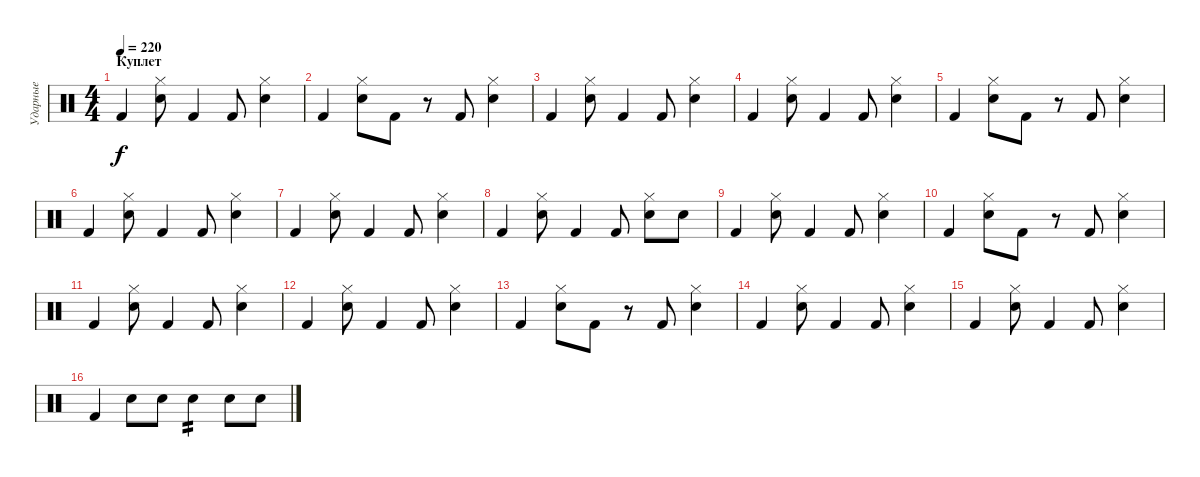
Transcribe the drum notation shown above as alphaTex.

\track ("Ударные" "Ударные") {instrument percussion}
\staff {score}
\articulation defaults
\ts (4 4)
\section ("" "Куплет")
\tempo 220
\clef neutral
\ks c "Kick (hit) 2".4{dy f}
("Hi-Hat (closed)" "Snare (hit) 2").8 "Kick (hit) 2".4 "Kick (hit) 2".8 ("Hi-Hat (closed)" "Snare (hit) 2").4 |
"Kick (hit) 2".4 ("Hi-Hat (closed)" "Snare (hit) 2").8 "Kick (hit) 2".8 r.8 "Kick (hit) 2".8 ("Hi-Hat (closed)" "Snare (hit) 2").4 |
"Kick (hit) 2".4 ("Hi-Hat (closed)" "Snare (hit) 2").8 "Kick (hit) 2".4 "Kick (hit) 2".8 ("Hi-Hat (closed)" "Snare (hit) 2").4 |
"Kick (hit) 2".4 ("Hi-Hat (closed)" "Snare (hit) 2").8 "Kick (hit) 2".4 "Kick (hit) 2".8 ("Hi-Hat (closed)" "Snare (hit) 2").4 |
"Kick (hit) 2".4 ("Hi-Hat (closed)" "Snare (hit) 2").8 "Kick (hit) 2".8 r.8 "Kick (hit) 2".8 ("Hi-Hat (closed)" "Snare (hit) 2").4 |
"Kick (hit) 2".4 ("Hi-Hat (closed)" "Snare (hit) 2").8 "Kick (hit) 2".4 "Kick (hit) 2".8 ("Hi-Hat (closed)" "Snare (hit) 2").4 |
"Kick (hit) 2".4 ("Hi-Hat (closed)" "Snare (hit) 2").8 "Kick (hit) 2".4 "Kick (hit) 2".8 ("Hi-Hat (closed)" "Snare (hit) 2").4 |
"Kick (hit) 2".4 ("Hi-Hat (closed)" "Snare (hit) 2").8 "Kick (hit) 2".4 "Kick (hit) 2".8 ("Hi-Hat (closed)" "Snare (hit) 2").8 "Snare (hit) 2".8 |
"Kick (hit) 2".4 ("Hi-Hat (closed)" "Snare (hit) 2").8 "Kick (hit) 2".4 "Kick (hit) 2".8 ("Hi-Hat (closed)" "Snare (hit) 2").4 |
"Kick (hit) 2".4 ("Hi-Hat (closed)" "Snare (hit) 2").8 "Kick (hit) 2".8 r.8 "Kick (hit) 2".8 ("Hi-Hat (closed)" "Snare (hit) 2").4 |
"Kick (hit) 2".4 ("Hi-Hat (closed)" "Snare (hit) 2").8 "Kick (hit) 2".4 "Kick (hit) 2".8 ("Hi-Hat (closed)" "Snare (hit) 2").4 |
"Kick (hit) 2".4 ("Hi-Hat (closed)" "Snare (hit) 2").8 "Kick (hit) 2".4 "Kick (hit) 2".8 ("Hi-Hat (closed)" "Snare (hit) 2").4 |
"Kick (hit) 2".4 ("Hi-Hat (closed)" "Snare (hit) 2").8 "Kick (hit) 2".8 r.8 "Kick (hit) 2".8 ("Hi-Hat (closed)" "Snare (hit) 2").4 |
"Kick (hit) 2".4 ("Hi-Hat (closed)" "Snare (hit) 2").8 "Kick (hit) 2".4 "Kick (hit) 2".8 ("Hi-Hat (closed)" "Snare (hit) 2").4 |
"Kick (hit) 2".4 ("Hi-Hat (closed)" "Snare (hit) 2").8 "Kick (hit) 2".4 "Kick (hit) 2".8 ("Hi-Hat (closed)" "Snare (hit) 2").4 |
"Kick (hit) 2".4 "Snare (hit) 2".8 "Snare (hit) 2".8 "Snare (hit) 2".4{tp 2} "Snare (hit) 2".8 "Snare (hit) 2".8
